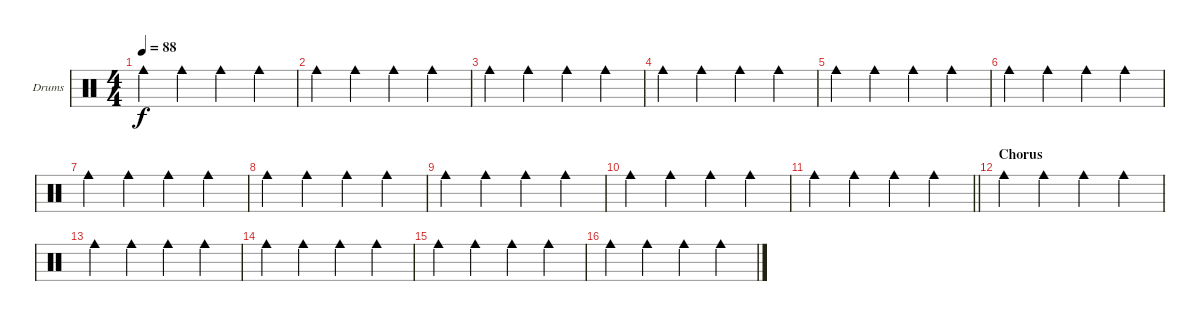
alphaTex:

\bracketExtendMode groupsimilarinstruments
\firstSystemTrackNameOrientation horizontal
\otherSystemsTrackNameOrientation horizontal
\track ("Bell" "Drums") {instrument percussion}
\staff {score}
\articulation defaults
\ts (4 4)
\tempo 88
\clef neutral
\ks c "Cowbell medium (hit)".4{dy f} "Cowbell medium (hit)".4 "Cowbell medium (hit)".4 "Cowbell medium (hit)".4
|
"Cowbell medium (hit)".4 "Cowbell medium (hit)".4 "Cowbell medium (hit)".4 "Cowbell medium (hit)".4 |
"Cowbell medium (hit)".4 "Cowbell medium (hit)".4 "Cowbell medium (hit)".4 "Cowbell medium (hit)".4 |
"Cowbell medium (hit)".4 "Cowbell medium (hit)".4 "Cowbell medium (hit)".4 "Cowbell medium (hit)".4 |
"Cowbell medium (hit)".4 "Cowbell medium (hit)".4 "Cowbell medium (hit)".4 "Cowbell medium (hit)".4 |
"Cowbell medium (hit)".4 "Cowbell medium (hit)".4 "Cowbell medium (hit)".4 "Cowbell medium (hit)".4 |
"Cowbell medium (hit)".4 "Cowbell medium (hit)".4 "Cowbell medium (hit)".4 "Cowbell medium (hit)".4 |
"Cowbell medium (hit)".4 "Cowbell medium (hit)".4 "Cowbell medium (hit)".4 "Cowbell medium (hit)".4 |
"Cowbell medium (hit)".4 "Cowbell medium (hit)".4 "Cowbell medium (hit)".4 "Cowbell medium (hit)".4 |
"Cowbell medium (hit)".4 "Cowbell medium (hit)".4 "Cowbell medium (hit)".4 "Cowbell medium (hit)".4 |
\barLineRight lightlight "Cowbell medium (hit)".4 "Cowbell medium (hit)".4 "Cowbell medium (hit)".4 "Cowbell medium (hit)".4
|
\section ("" "Chorus")
"Cowbell medium (hit)".4 "Cowbell medium (hit)".4 "Cowbell medium (hit)".4 "Cowbell medium (hit)".4 |
"Cowbell medium (hit)".4 "Cowbell medium (hit)".4 "Cowbell medium (hit)".4 "Cowbell medium (hit)".4 |
"Cowbell medium (hit)".4 "Cowbell medium (hit)".4 "Cowbell medium (hit)".4 "Cowbell medium (hit)".4 |
"Cowbell medium (hit)".4 "Cowbell medium (hit)".4 "Cowbell medium (hit)".4 "Cowbell medium (hit)".4 |
"Cowbell medium (hit)".4 "Cowbell medium (hit)".4 "Cowbell medium (hit)".4 "Cowbell medium (hit)".4
